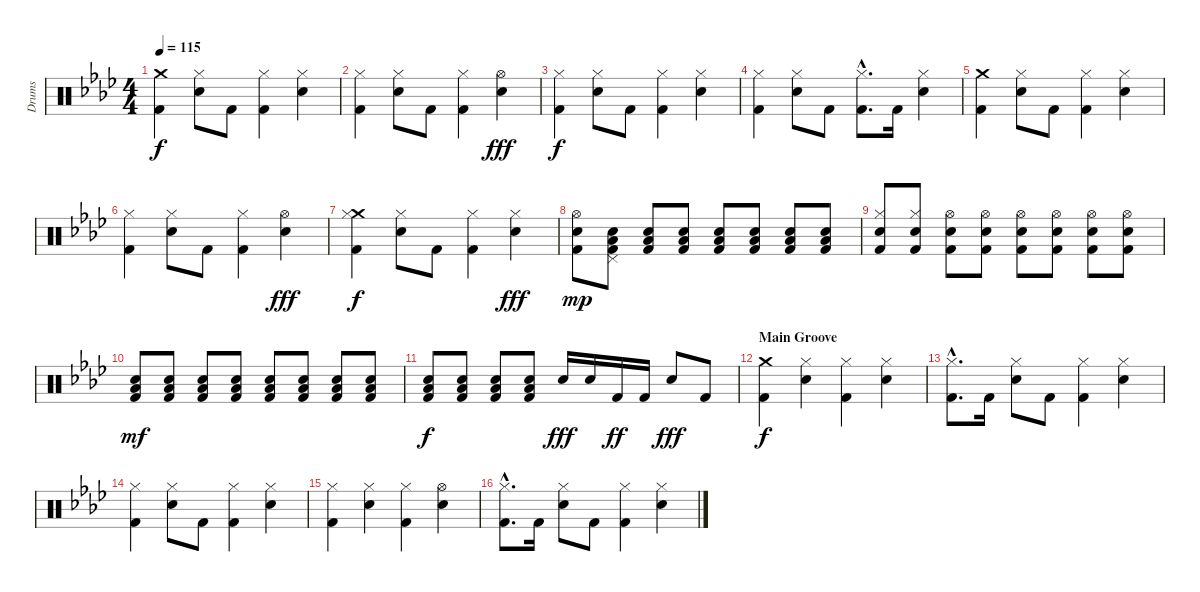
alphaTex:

\track ("Drums" "Drums") {instrument percussion}
\staff {score}
\articulation defaults
\ts (4 4)
\tempo 115
\clef neutral
\ks ab
("Crash medium (hit)" "Kick (hit) 2").4{dy f} ("Hi-Hat (closed)" "Snare (hit) 2").8 "Kick (hit) 2".8 ("Hi-Hat (closed)" "Kick (hit) 2").4 ("Hi-Hat (closed)" "Snare (hit) 2").4 |
("Hi-Hat (closed)" "Kick (hit) 2").4 ("Hi-Hat (closed)" "Snare (hit) 2").8 "Kick (hit) 2".8 ("Hi-Hat (closed)" "Kick (hit) 2").4 ("Hi-Hat (open)" "Snare (hit) 2").4{dy fff} |
("Hi-Hat (closed)" "Kick (hit) 2").4{dy f} ("Hi-Hat (closed)" "Snare (hit) 2").8 "Kick (hit) 2".8 ("Hi-Hat (closed)" "Kick (hit) 2").4 ("Hi-Hat (closed)" "Snare (hit) 2").4 |
("Hi-Hat (closed)" "Kick (hit) 2").4 ("Hi-Hat (closed)" "Snare (hit) 2").8 "Kick (hit) 2".8 ("Hi-Hat (closed)"{hac} "Kick (hit) 2"{hac}).8{d} "Kick (hit) 2".16 ("Hi-Hat (closed)" "Snare (hit) 2").4 |
("Crash medium (hit)" "Kick (hit) 2").4 ("Hi-Hat (closed)" "Snare (hit) 2").8 "Kick (hit) 2".8 ("Hi-Hat (closed)" "Kick (hit) 2").4 ("Hi-Hat (closed)" "Snare (hit) 2").4 |
("Hi-Hat (closed)" "Kick (hit) 2").4 ("Hi-Hat (closed)" "Snare (hit) 2").8 "Kick (hit) 2".8 ("Hi-Hat (closed)" "Kick (hit) 2").4 ("Hi-Hat (open)" "Snare (hit) 2").4{dy fff} |
("Crash medium (hit)" "Hi-Hat (closed)" "Kick (hit) 2").4{dy f} ("Hi-Hat (closed)" "Snare (hit) 2").8 "Kick (hit) 2".8 ("Hi-Hat (closed)" "Kick (hit) 2").4 ("Hi-Hat (closed)" "Snare (hit) 2").4{dy fff} |
("Hi-Hat (open)" "Snare (hit) 2" "Kick (hit) 2").8{dy mp} ("Low Tom (hit)" "Pedal Hi-Hat (hit)" "Snare (hit) 2" "Kick (hit) 2").8 ("Low Tom (hit)" "Snare (hit) 2" "Kick (hit) 2").8 ("Low Tom (hit)" "Snare (hit) 2" "Kick (hit) 2").8 ("Low Tom (hit)" "Snare (hit) 2" "Kick (hit) 2").8 ("Low Tom (hit)" "Snare (hit) 2" "Kick (hit) 2").8 ("Low Tom (hit)" "Snare (hit) 2" "Kick (hit) 2").8 ("Low Tom (hit)" "Snare (hit) 2" "Kick (hit) 2").8 |
("Hi-Hat (closed)" "Snare (hit) 2" "Kick (hit) 2").8 ("Hi-Hat (closed)" "Snare (hit) 2" "Kick (hit) 2").8 ("Hi-Hat (open)" "Snare (hit) 2" "Kick (hit) 2").8 ("Hi-Hat (open)" "Snare (hit) 2" "Kick (hit) 2").8 ("Hi-Hat (open)" "Snare (hit) 2" "Kick (hit) 2").8 ("Hi-Hat (open)" "Snare (hit) 2" "Kick (hit) 2").8 ("Hi-Hat (open)" "Snare (hit) 2" "Kick (hit) 2").8 ("Hi-Hat (open)" "Snare (hit) 2" "Kick (hit) 2").8 |
("Low Tom (hit)" "Snare (hit) 2" "Kick (hit) 2").8{dy mf} ("Low Tom (hit)" "Snare (hit) 2" "Kick (hit) 2").8 ("Low Tom (hit)" "Snare (hit) 2" "Kick (hit) 2").8 ("Low Tom (hit)" "Snare (hit) 2" "Kick (hit) 2").8 ("Low Tom (hit)" "Snare (hit) 2" "Kick (hit) 2").8 ("Low Tom (hit)" "Snare (hit) 2" "Kick (hit) 2").8 ("Low Tom (hit)" "Snare (hit) 2" "Kick (hit) 2").8 ("Low Tom (hit)" "Snare (hit) 2" "Kick (hit) 2").8 |
("Low Tom (hit)" "Snare (hit) 2" "Kick (hit) 2").8{dy f} ("Low Tom (hit)" "Snare (hit) 2" "Kick (hit) 2").8 ("Low Tom (hit)" "Snare (hit) 2" "Kick (hit) 2").8 ("Low Tom (hit)" "Snare (hit) 2" "Kick (hit) 2").8 "Snare (hit) 2".16{dy fff} "Snare (hit) 2".16 "Kick (hit) 2".16{dy ff} "Kick (hit) 2".16 "Snare (hit) 2".8{dy fff} "Kick (hit) 2".8 |
\section ("" "Main Groove")
("Crash medium (hit)" "Kick (hit) 2").4{dy f} ("Hi-Hat (closed)" "Snare (hit) 2").4 ("Hi-Hat (closed)" "Kick (hit) 2").4 ("Hi-Hat (closed)" "Snare (hit) 2").4 |
("Hi-Hat (closed)"{hac} "Kick (hit) 2"{hac}).8{d} "Kick (hit) 2".16 ("Hi-Hat (closed)" "Snare (hit) 2").8 "Kick (hit) 2".8 ("Hi-Hat (closed)" "Kick (hit) 2").4 ("Hi-Hat (closed)" "Snare (hit) 2").4 |
("Hi-Hat (closed)" "Kick (hit) 2").4 ("Hi-Hat (closed)" "Snare (hit) 2").8 "Kick (hit) 2".8 ("Hi-Hat (closed)" "Kick (hit) 2").4 ("Hi-Hat (closed)" "Snare (hit) 2").4 |
("Hi-Hat (closed)" "Kick (hit) 2").4 ("Hi-Hat (closed)" "Snare (hit) 2").4 ("Hi-Hat (closed)" "Kick (hit) 2").4 ("Hi-Hat (open)" "Snare (hit) 2").4 |
("Hi-Hat (closed)"{hac} "Kick (hit) 2"{hac}).8{d} "Kick (hit) 2".16 ("Hi-Hat (closed)" "Snare (hit) 2").8 "Kick (hit) 2".8 ("Hi-Hat (closed)" "Kick (hit) 2").4 ("Hi-Hat (closed)" "Snare (hit) 2").4
